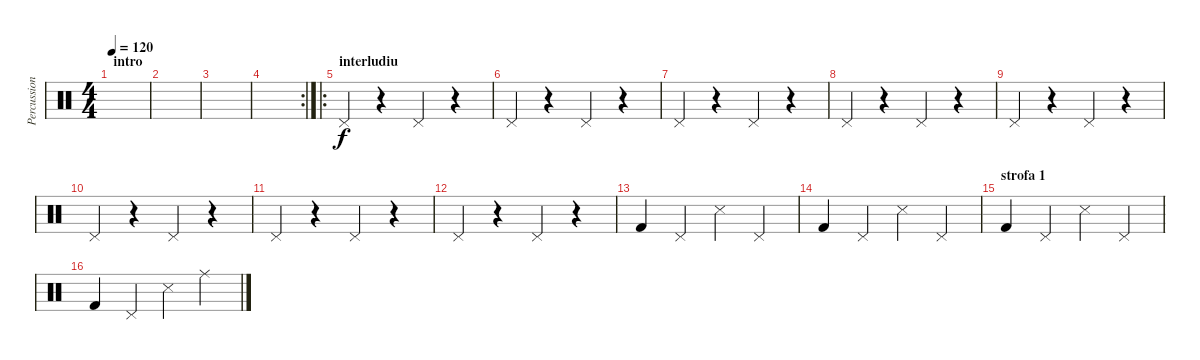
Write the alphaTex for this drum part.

\track ("Percussion" "Percussion") {instrument percussion}
\staff {score}
\articulation defaults
\ts (4 4)
\section ("" "intro")
\tempo 120
\clef neutral
\ks c
|
|
|
\rc 2
|
\ro
\section ("" "interludiu")
"Pedal Hi-Hat (hit)".4 r.4 "Pedal Hi-Hat (hit)".4 r.4 |
"Pedal Hi-Hat (hit)".4 r.4 "Pedal Hi-Hat (hit)".4 r.4 |
"Pedal Hi-Hat (hit)".4 r.4 "Pedal Hi-Hat (hit)".4 r.4 |
"Pedal Hi-Hat (hit)".4 r.4 "Pedal Hi-Hat (hit)".4 r.4 |
\section ("" "")
"Pedal Hi-Hat (hit)".4 r.4 "Pedal Hi-Hat (hit)".4 r.4 |
"Pedal Hi-Hat (hit)".4 r.4 "Pedal Hi-Hat (hit)".4 r.4 |
"Pedal Hi-Hat (hit)".4 r.4 "Pedal Hi-Hat (hit)".4 r.4 |
"Pedal Hi-Hat (hit)".4 r.4 "Pedal Hi-Hat (hit)".4 r.4 |
"Kick (hit) 2".4 "Pedal Hi-Hat (hit)".4 "Snare (side stick) 3".4 "Pedal Hi-Hat (hit)".4 |
"Kick (hit) 2".4 "Pedal Hi-Hat (hit)".4 "Snare (side stick) 3".4 "Pedal Hi-Hat (hit)".4 |
\section ("" "strofa 1")
"Kick (hit) 2".4 "Pedal Hi-Hat (hit)".4 "Snare (side stick) 3".4 "Pedal Hi-Hat (hit)".4 |
"Kick (hit) 2".4 "Pedal Hi-Hat (hit)".4 "Snare (side stick) 3".4 "Ride (middle)".4
